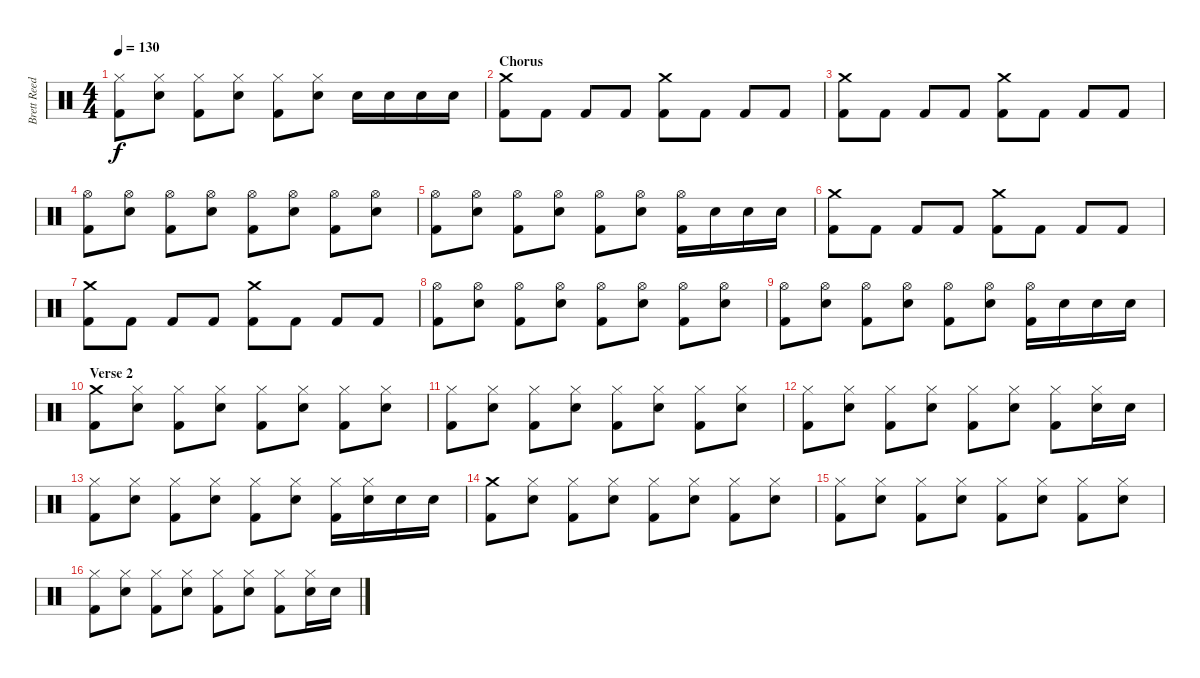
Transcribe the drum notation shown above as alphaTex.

\track ("Brett Reed" "Brett Reed") {instrument percussion}
\staff {score}
\articulation defaults
\ts (4 4)
\tempo 130
\clef neutral
\ks c
("Hi-Hat (closed)" "Kick (hit) 2").8{dy f} ("Hi-Hat (closed)" "Snare (hit) 2").8 ("Hi-Hat (closed)" "Kick (hit) 2").8 ("Hi-Hat (closed)" "Snare (hit) 2").8 ("Hi-Hat (closed)" "Kick (hit) 2").8 ("Hi-Hat (closed)" "Snare (hit) 2").8 "Snare (hit) 2".16 "Snare (hit) 2".16 "Snare (hit) 2".16 "Snare (hit) 2".16 |
\section ("" "Chorus")
("Crash medium (hit)" "Kick (hit) 2").8 "Kick (hit) 2".8 "Kick (hit) 2".8 "Kick (hit) 2".8 ("Crash medium (hit)" "Kick (hit) 2").8 "Kick (hit) 2".8 "Kick (hit) 2".8 "Kick (hit) 2".8 |
("Crash medium (hit)" "Kick (hit) 2").8 "Kick (hit) 2".8 "Kick (hit) 2".8 "Kick (hit) 2".8 ("Crash medium (hit)" "Kick (hit) 2").8 "Kick (hit) 2".8 "Kick (hit) 2".8 "Kick (hit) 2".8 |
("Hi-Hat (open)" "Kick (hit) 2").8 ("Hi-Hat (open)" "Snare (hit) 2").8 ("Hi-Hat (open)" "Kick (hit) 2").8 ("Hi-Hat (open)" "Snare (hit) 2").8 ("Hi-Hat (open)" "Kick (hit) 2").8 ("Hi-Hat (open)" "Snare (hit) 2").8 ("Hi-Hat (open)" "Kick (hit) 2").8 ("Hi-Hat (open)" "Snare (hit) 2").8 |
("Hi-Hat (open)" "Kick (hit) 2").8 ("Hi-Hat (open)" "Snare (hit) 2").8 ("Hi-Hat (open)" "Kick (hit) 2").8 ("Hi-Hat (open)" "Snare (hit) 2").8 ("Hi-Hat (open)" "Kick (hit) 2").8 ("Hi-Hat (open)" "Snare (hit) 2").8 ("Hi-Hat (open)" "Kick (hit) 2").16 "Snare (hit) 2".16 "Snare (hit) 2".16 "Snare (hit) 2".16 |
("Crash medium (hit)" "Kick (hit) 2").8 "Kick (hit) 2".8 "Kick (hit) 2".8 "Kick (hit) 2".8 ("Crash medium (hit)" "Kick (hit) 2").8 "Kick (hit) 2".8 "Kick (hit) 2".8 "Kick (hit) 2".8 |
("Crash medium (hit)" "Kick (hit) 2").8 "Kick (hit) 2".8 "Kick (hit) 2".8 "Kick (hit) 2".8 ("Crash medium (hit)" "Kick (hit) 2").8 "Kick (hit) 2".8 "Kick (hit) 2".8 "Kick (hit) 2".8 |
("Hi-Hat (open)" "Kick (hit) 2").8 ("Hi-Hat (open)" "Snare (hit) 2").8 ("Hi-Hat (open)" "Kick (hit) 2").8 ("Hi-Hat (open)" "Snare (hit) 2").8 ("Hi-Hat (open)" "Kick (hit) 2").8 ("Hi-Hat (open)" "Snare (hit) 2").8 ("Hi-Hat (open)" "Kick (hit) 2").8 ("Hi-Hat (open)" "Snare (hit) 2").8 |
("Hi-Hat (open)" "Kick (hit) 2").8 ("Hi-Hat (open)" "Snare (hit) 2").8 ("Hi-Hat (open)" "Kick (hit) 2").8 ("Hi-Hat (open)" "Snare (hit) 2").8 ("Hi-Hat (open)" "Kick (hit) 2").8 ("Hi-Hat (open)" "Snare (hit) 2").8 ("Hi-Hat (open)" "Kick (hit) 2").16 "Snare (hit) 2".16 "Snare (hit) 2".16 "Snare (hit) 2".16 |
\section ("" "Verse 2")
("Crash medium (hit)" "Kick (hit) 2").8 ("Hi-Hat (closed)" "Snare (hit) 2").8 ("Hi-Hat (closed)" "Kick (hit) 2").8 ("Hi-Hat (closed)" "Snare (hit) 2").8 ("Hi-Hat (closed)" "Kick (hit) 2").8 ("Hi-Hat (closed)" "Snare (hit) 2").8 ("Hi-Hat (closed)" "Kick (hit) 2").8 ("Hi-Hat (closed)" "Snare (hit) 2").8 |
("Hi-Hat (closed)" "Kick (hit) 2").8 ("Hi-Hat (closed)" "Snare (hit) 2").8 ("Hi-Hat (closed)" "Kick (hit) 2").8 ("Hi-Hat (closed)" "Snare (hit) 2").8 ("Hi-Hat (closed)" "Kick (hit) 2").8 ("Hi-Hat (closed)" "Snare (hit) 2").8 ("Hi-Hat (closed)" "Kick (hit) 2").8 ("Hi-Hat (closed)" "Snare (hit) 2").8 |
("Hi-Hat (closed)" "Kick (hit) 2").8 ("Hi-Hat (closed)" "Snare (hit) 2").8 ("Hi-Hat (closed)" "Kick (hit) 2").8 ("Hi-Hat (closed)" "Snare (hit) 2").8 ("Hi-Hat (closed)" "Kick (hit) 2").8 ("Hi-Hat (closed)" "Snare (hit) 2").8 ("Hi-Hat (closed)" "Kick (hit) 2").8 ("Hi-Hat (closed)" "Snare (hit) 2").16 "Snare (hit) 2".16 |
("Hi-Hat (closed)" "Kick (hit) 2").8 ("Hi-Hat (closed)" "Snare (hit) 2").8 ("Hi-Hat (closed)" "Kick (hit) 2").8 ("Hi-Hat (closed)" "Snare (hit) 2").8 ("Hi-Hat (closed)" "Kick (hit) 2").8 ("Hi-Hat (closed)" "Snare (hit) 2").8 ("Hi-Hat (closed)" "Kick (hit) 2").16 ("Hi-Hat (closed)" "Snare (hit) 2").16 "Snare (hit) 2".16 "Snare (hit) 2".16 |
("Crash medium (hit)" "Kick (hit) 2").8 ("Hi-Hat (closed)" "Snare (hit) 2").8 ("Hi-Hat (closed)" "Kick (hit) 2").8 ("Hi-Hat (closed)" "Snare (hit) 2").8 ("Hi-Hat (closed)" "Kick (hit) 2").8 ("Hi-Hat (closed)" "Snare (hit) 2").8 ("Hi-Hat (closed)" "Kick (hit) 2").8 ("Hi-Hat (closed)" "Snare (hit) 2").8 |
("Hi-Hat (closed)" "Kick (hit) 2").8 ("Hi-Hat (closed)" "Snare (hit) 2").8 ("Hi-Hat (closed)" "Kick (hit) 2").8 ("Hi-Hat (closed)" "Snare (hit) 2").8 ("Hi-Hat (closed)" "Kick (hit) 2").8 ("Hi-Hat (closed)" "Snare (hit) 2").8 ("Hi-Hat (closed)" "Kick (hit) 2").8 ("Hi-Hat (closed)" "Snare (hit) 2").8 |
("Hi-Hat (closed)" "Kick (hit) 2").8 ("Hi-Hat (closed)" "Snare (hit) 2").8 ("Hi-Hat (closed)" "Kick (hit) 2").8 ("Hi-Hat (closed)" "Snare (hit) 2").8 ("Hi-Hat (closed)" "Kick (hit) 2").8 ("Hi-Hat (closed)" "Snare (hit) 2").8 ("Hi-Hat (closed)" "Kick (hit) 2").8 ("Hi-Hat (closed)" "Snare (hit) 2").16 "Snare (hit) 2".16
